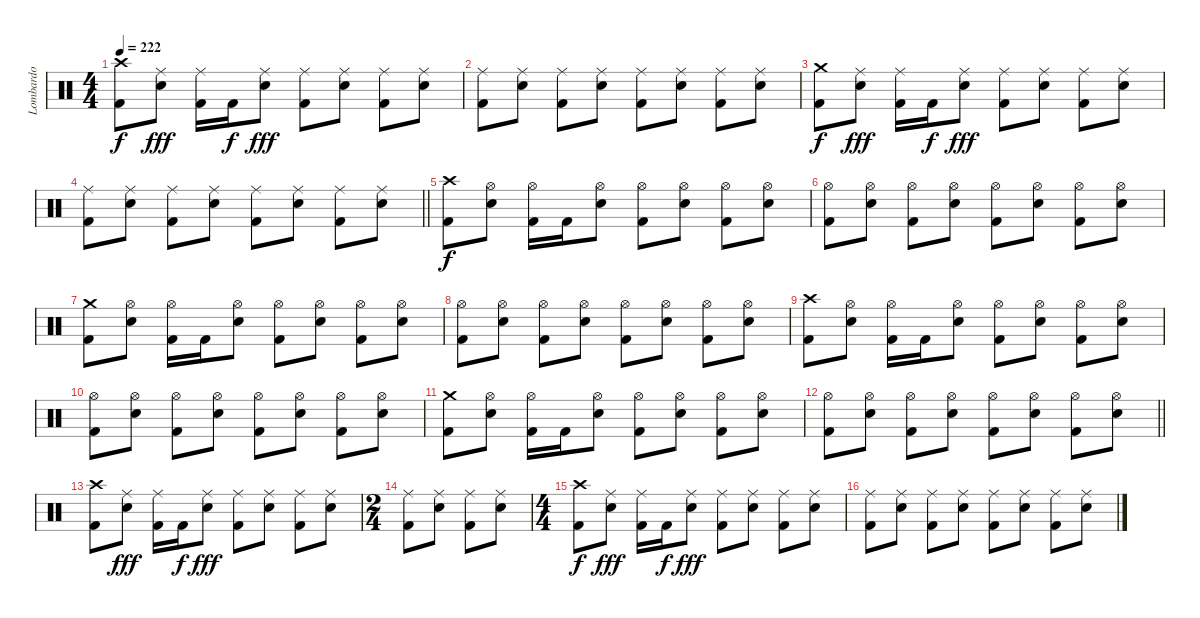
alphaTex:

\track ("Lombardo" "Lombardo") {instrument percussion}
\staff {score}
\articulation defaults
\ts (4 4)
\tempo 222
\clef neutral
\ks c
("Crash high (hit)" "Kick (hit) 2").8{dy f} ("Ride (middle)" "Snare (hit) 2").8{dy fff} ("Ride (middle)" "Kick (hit) 2").16 "Kick (hit) 2".16{dy f} ("Ride (middle)" "Snare (hit) 2").8{dy fff} ("Ride (middle)" "Kick (hit) 2").8 ("Ride (middle)" "Snare (hit) 2").8 ("Ride (middle)" "Kick (hit) 2").8 ("Ride (middle)" "Snare (hit) 2").8 |
("Ride (middle)" "Kick (hit) 2").8 ("Ride (middle)" "Snare (hit) 2").8 ("Ride (middle)" "Kick (hit) 2").8 ("Ride (middle)" "Snare (hit) 2").8 ("Ride (middle)" "Kick (hit) 2").8 ("Ride (middle)" "Snare (hit) 2").8 ("Ride (middle)" "Kick (hit) 2").8 ("Ride (middle)" "Snare (hit) 2").8 |
("Crash medium (hit)" "Kick (hit) 2").8{dy f} ("Ride (middle)" "Snare (hit) 2").8{dy fff} ("Ride (middle)" "Kick (hit) 2").16 "Kick (hit) 2".16{dy f} ("Ride (middle)" "Snare (hit) 2").8{dy fff} ("Ride (middle)" "Kick (hit) 2").8 ("Ride (middle)" "Snare (hit) 2").8 ("Ride (middle)" "Kick (hit) 2").8 ("Ride (middle)" "Snare (hit) 2").8 |
\barLineRight lightlight
("Ride (middle)" "Kick (hit) 2").8 ("Ride (middle)" "Snare (hit) 2").8 ("Ride (middle)" "Kick (hit) 2").8 ("Ride (middle)" "Snare (hit) 2").8 ("Ride (middle)" "Kick (hit) 2").8 ("Ride (middle)" "Snare (hit) 2").8 ("Ride (middle)" "Kick (hit) 2").8 ("Ride (middle)" "Snare (hit) 2").8 |
("Crash high (hit)" "Kick (hit) 2").8{dy f} ("Hi-Hat (open)" "Snare (hit) 2").8 ("Hi-Hat (open)" "Kick (hit) 2").16 "Kick (hit) 2".16 ("Hi-Hat (open)" "Snare (hit) 2").8 ("Hi-Hat (open)" "Kick (hit) 2").8 ("Hi-Hat (open)" "Snare (hit) 2").8 ("Hi-Hat (open)" "Kick (hit) 2").8 ("Hi-Hat (open)" "Snare (hit) 2").8 |
("Hi-Hat (open)" "Kick (hit) 2").8 ("Hi-Hat (open)" "Snare (hit) 2").8 ("Hi-Hat (open)" "Kick (hit) 2").8 ("Hi-Hat (open)" "Snare (hit) 2").8 ("Hi-Hat (open)" "Kick (hit) 2").8 ("Hi-Hat (open)" "Snare (hit) 2").8 ("Hi-Hat (open)" "Kick (hit) 2").8 ("Hi-Hat (open)" "Snare (hit) 2").8 |
("Crash medium (hit)" "Kick (hit) 2").8 ("Hi-Hat (open)" "Snare (hit) 2").8 ("Hi-Hat (open)" "Kick (hit) 2").16 "Kick (hit) 2".16 ("Hi-Hat (open)" "Snare (hit) 2").8 ("Hi-Hat (open)" "Kick (hit) 2").8 ("Hi-Hat (open)" "Snare (hit) 2").8 ("Hi-Hat (open)" "Kick (hit) 2").8 ("Hi-Hat (open)" "Snare (hit) 2").8 |
("Hi-Hat (open)" "Kick (hit) 2").8 ("Hi-Hat (open)" "Snare (hit) 2").8 ("Hi-Hat (open)" "Kick (hit) 2").8 ("Hi-Hat (open)" "Snare (hit) 2").8 ("Hi-Hat (open)" "Kick (hit) 2").8 ("Hi-Hat (open)" "Snare (hit) 2").8 ("Hi-Hat (open)" "Kick (hit) 2").8 ("Hi-Hat (open)" "Snare (hit) 2").8 |
("Crash high (hit)" "Kick (hit) 2").8 ("Hi-Hat (open)" "Snare (hit) 2").8 ("Hi-Hat (open)" "Kick (hit) 2").16 "Kick (hit) 2".16 ("Hi-Hat (open)" "Snare (hit) 2").8 ("Hi-Hat (open)" "Kick (hit) 2").8 ("Hi-Hat (open)" "Snare (hit) 2").8 ("Hi-Hat (open)" "Kick (hit) 2").8 ("Hi-Hat (open)" "Snare (hit) 2").8 |
("Hi-Hat (open)" "Kick (hit) 2").8 ("Hi-Hat (open)" "Snare (hit) 2").8 ("Hi-Hat (open)" "Kick (hit) 2").8 ("Hi-Hat (open)" "Snare (hit) 2").8 ("Hi-Hat (open)" "Kick (hit) 2").8 ("Hi-Hat (open)" "Snare (hit) 2").8 ("Hi-Hat (open)" "Kick (hit) 2").8 ("Hi-Hat (open)" "Snare (hit) 2").8 |
("Crash medium (hit)" "Kick (hit) 2").8 ("Hi-Hat (open)" "Snare (hit) 2").8 ("Hi-Hat (open)" "Kick (hit) 2").16 "Kick (hit) 2".16 ("Hi-Hat (open)" "Snare (hit) 2").8 ("Hi-Hat (open)" "Kick (hit) 2").8 ("Hi-Hat (open)" "Snare (hit) 2").8 ("Hi-Hat (open)" "Kick (hit) 2").8 ("Hi-Hat (open)" "Snare (hit) 2").8 |
\barLineRight lightlight
("Hi-Hat (open)" "Kick (hit) 2").8 ("Hi-Hat (open)" "Snare (hit) 2").8 ("Hi-Hat (open)" "Kick (hit) 2").8 ("Hi-Hat (open)" "Snare (hit) 2").8 ("Hi-Hat (open)" "Kick (hit) 2").8 ("Hi-Hat (open)" "Snare (hit) 2").8 ("Hi-Hat (open)" "Kick (hit) 2").8 ("Hi-Hat (open)" "Snare (hit) 2").8 |
("Crash high (hit)" "Kick (hit) 2").8 ("Ride (middle)" "Snare (hit) 2").8{dy fff} ("Ride (middle)" "Kick (hit) 2").16 "Kick (hit) 2".16{dy f} ("Ride (middle)" "Snare (hit) 2").8{dy fff} ("Ride (middle)" "Kick (hit) 2").8 ("Ride (middle)" "Snare (hit) 2").8 ("Ride (middle)" "Kick (hit) 2").8 ("Ride (middle)" "Snare (hit) 2").8 |
\ts (2 4)
("Ride (middle)" "Kick (hit) 2").8 ("Ride (middle)" "Snare (hit) 2").8 ("Ride (middle)" "Kick (hit) 2").8 ("Ride (middle)" "Snare (hit) 2").8 |
\ts (4 4)
("Crash high (hit)" "Kick (hit) 2").8{dy f} ("Ride (middle)" "Snare (hit) 2").8{dy fff} ("Ride (middle)" "Kick (hit) 2").16 "Kick (hit) 2".16{dy f} ("Ride (middle)" "Snare (hit) 2").8{dy fff} ("Ride (middle)" "Kick (hit) 2").8 ("Ride (middle)" "Snare (hit) 2").8 ("Ride (middle)" "Kick (hit) 2").8 ("Ride (middle)" "Snare (hit) 2").8 |
("Ride (middle)" "Kick (hit) 2").8 ("Ride (middle)" "Snare (hit) 2").8 ("Ride (middle)" "Kick (hit) 2").8 ("Ride (middle)" "Snare (hit) 2").8 ("Ride (middle)" "Kick (hit) 2").8 ("Ride (middle)" "Snare (hit) 2").8 ("Ride (middle)" "Kick (hit) 2").8 ("Ride (middle)" "Snare (hit) 2").8
